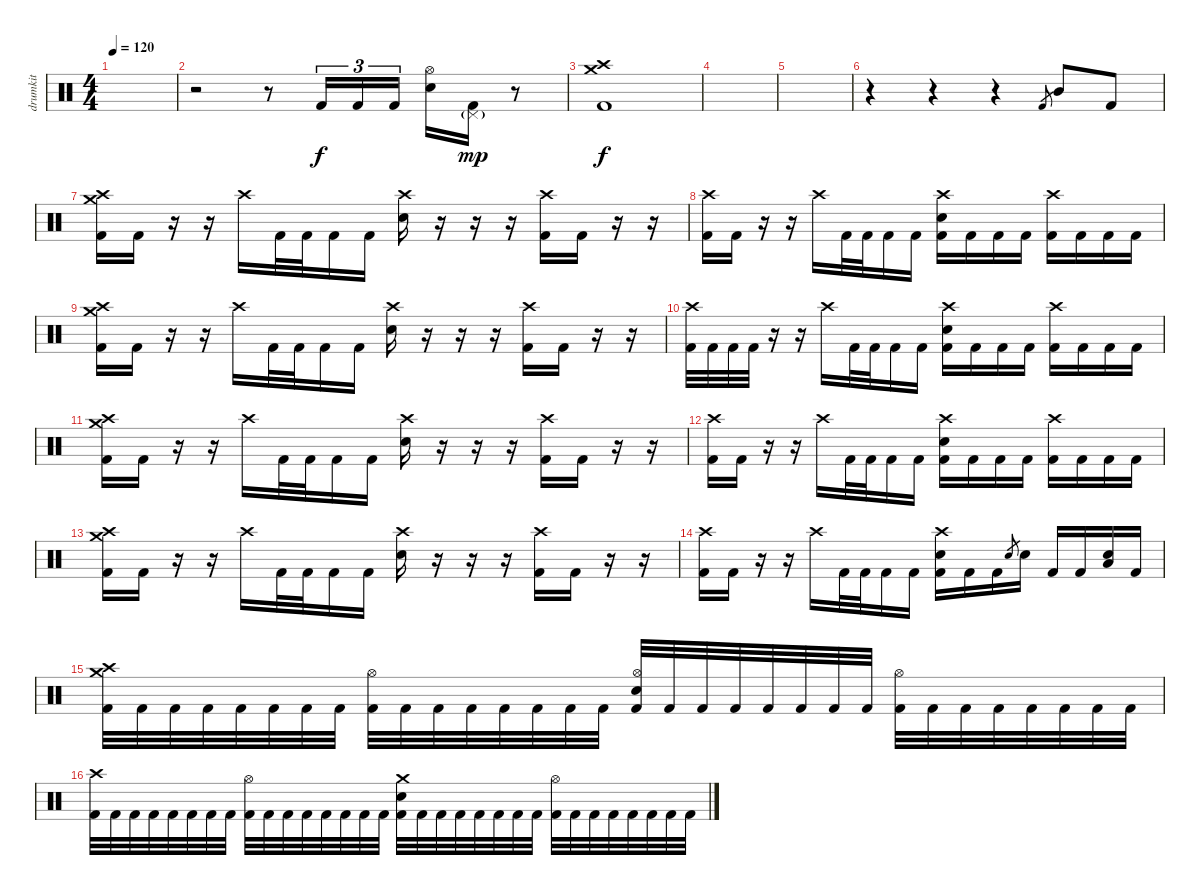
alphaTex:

\track ("drumkit" "drumkit") {instrument percussion}
\staff {score}
\articulation defaults
\ts (4 4)
\tempo 120
\clef neutral
\ks c
|
r.2 r.8 "Kick (hit) 2".16{tu (3 2)} "Kick (hit) 2".16{tu (3 2)} "Kick (hit) 2".16{tu (3 2)} ("Hi-Hat (open)" "Electric Snare (hit)").16 ("Pedal Hi-Hat (hit)"{g} "Kick (hit) 2").16{dy mp} r.8 |
("Crash high (hit)" "Crash medium (hit)" "Kick (hit) 2").1{dy f} |
|
|
r.4 r.4 r.4 "Kick (hit) 2".8{gr} "Mid Tom (hit)".8 "Kick (hit) 2".8 |
("Crash high (hit)" "Crash medium (hit)" "Kick (hit) 2").16 "Kick (hit) 2".16 r.16 r.16 "Crash high (hit)".16 "Kick (hit) 2".32 "Kick (hit) 2".32 "Kick (hit) 2".16 "Kick (hit) 2".16 ("Crash high (hit)" "Electric Snare (hit)").16 r.16 r.16 r.16 ("Crash high (hit)" "Kick (hit) 2").16 "Kick (hit) 2".16 r.16 r.16 |
("Crash high (hit)" "Kick (hit) 2").16 "Kick (hit) 2".16 r.16 r.16 "Crash high (hit)".16 "Kick (hit) 2".32 "Kick (hit) 2".32 "Kick (hit) 2".16 "Kick (hit) 2".16 ("Crash high (hit)" "Electric Snare (hit)" "Kick (hit) 2").16 "Kick (hit) 2".16 "Kick (hit) 2".16 "Kick (hit) 2".16 ("Crash high (hit)" "Kick (hit) 2").16 "Kick (hit) 2".16 "Kick (hit) 2".16 "Kick (hit) 2".16 |
("Crash high (hit)" "Crash medium (hit)" "Kick (hit) 2").16 "Kick (hit) 2".16 r.16 r.16 "Crash high (hit)".16 "Kick (hit) 2".32 "Kick (hit) 2".32 "Kick (hit) 2".16 "Kick (hit) 2".16 ("Crash high (hit)" "Electric Snare (hit)").16 r.16 r.16 r.16 ("Crash high (hit)" "Kick (hit) 2").16 "Kick (hit) 2".16 r.16 r.16 |
("Crash high (hit)" "Kick (hit) 2").32 "Kick (hit) 2".32 "Kick (hit) 2".32 "Kick (hit) 2".32 r.16 r.16 "Crash high (hit)".16 "Kick (hit) 2".32 "Kick (hit) 2".32 "Kick (hit) 2".16 "Kick (hit) 2".16 ("Crash high (hit)" "Electric Snare (hit)" "Kick (hit) 2").16 "Kick (hit) 2".16 "Kick (hit) 2".16 "Kick (hit) 2".16 ("Crash high (hit)" "Kick (hit) 2").16 "Kick (hit) 2".16 "Kick (hit) 2".16 "Kick (hit) 2".16 |
("Crash high (hit)" "Crash medium (hit)" "Kick (hit) 2").16 "Kick (hit) 2".16 r.16 r.16 "Crash high (hit)".16 "Kick (hit) 2".32 "Kick (hit) 2".32 "Kick (hit) 2".16 "Kick (hit) 2".16 ("Crash high (hit)" "Electric Snare (hit)").16 r.16 r.16 r.16 ("Crash high (hit)" "Kick (hit) 2").16 "Kick (hit) 2".16 r.16 r.16 |
("Crash high (hit)" "Kick (hit) 2").16 "Kick (hit) 2".16 r.16 r.16 "Crash high (hit)".16 "Kick (hit) 2".32 "Kick (hit) 2".32 "Kick (hit) 2".16 "Kick (hit) 2".16 ("Crash high (hit)" "Electric Snare (hit)" "Kick (hit) 2").16 "Kick (hit) 2".16 "Kick (hit) 2".16 "Kick (hit) 2".16 ("Crash high (hit)" "Kick (hit) 2").16 "Kick (hit) 2".16 "Kick (hit) 2".16 "Kick (hit) 2".16 |
("Crash high (hit)" "Crash medium (hit)" "Kick (hit) 2").16 "Kick (hit) 2".16 r.16 r.16 "Crash high (hit)".16 "Kick (hit) 2".32 "Kick (hit) 2".32 "Kick (hit) 2".16 "Kick (hit) 2".16 ("Crash high (hit)" "Electric Snare (hit)").16 r.16 r.16 r.16 ("Crash high (hit)" "Kick (hit) 2").16 "Kick (hit) 2".16 r.16 r.16 |
("Crash high (hit)" "Kick (hit) 2").16 "Kick (hit) 2".16 r.16 r.16 "Crash high (hit)".16 "Kick (hit) 2".32 "Kick (hit) 2".32 "Kick (hit) 2".16 "Kick (hit) 2".16 ("Crash high (hit)" "Electric Snare (hit)" "Kick (hit) 2").16 "Kick (hit) 2".16 "Kick (hit) 2".16 "Electric Snare (hit)".8{gr} "Electric Snare (hit)".16 "Kick (hit) 2".16 "Kick (hit) 2".16 ("Low Floor Tom (hit)" "Electric Snare (hit)").16 "Kick (hit) 2".16 |
("Crash high (hit)" "Crash medium (hit)" "Kick (hit) 2").32 "Kick (hit) 2".32 "Kick (hit) 2".32 "Kick (hit) 2".32 "Kick (hit) 2".32 "Kick (hit) 2".32 "Kick (hit) 2".32 "Kick (hit) 2".32 ("Hi-Hat (open)" "Kick (hit) 2").32 "Kick (hit) 2".32 "Kick (hit) 2".32 "Kick (hit) 2".32 "Kick (hit) 2".32 "Kick (hit) 2".32 "Kick (hit) 2".32 "Kick (hit) 2".32 ("Hi-Hat (open)" "Electric Snare (hit)" "Kick (hit) 2").32 "Kick (hit) 2".32 "Kick (hit) 2".32 "Kick (hit) 2".32 "Kick (hit) 2".32 "Kick (hit) 2".32 "Kick (hit) 2".32 "Kick (hit) 2".32 ("Hi-Hat (open)" "Kick (hit) 2").32 "Kick (hit) 2".32 "Kick (hit) 2".32 "Kick (hit) 2".32 "Kick (hit) 2".32 "Kick (hit) 2".32 "Kick (hit) 2".32 "Kick (hit) 2".32 |
("Crash high (hit)" "Kick (hit) 2").32 "Kick (hit) 2".32 "Kick (hit) 2".32 "Kick (hit) 2".32 "Kick (hit) 2".32 "Kick (hit) 2".32 "Kick (hit) 2".32 "Kick (hit) 2".32 ("Hi-Hat (open)" "Kick (hit) 2").32 "Kick (hit) 2".32 "Kick (hit) 2".32 "Kick (hit) 2".32 "Kick (hit) 2".32 "Kick (hit) 2".32 "Kick (hit) 2".32 "Kick (hit) 2".32 ("Crash medium (hit)" "Electric Snare (hit)" "Kick (hit) 2").32 "Kick (hit) 2".32 "Kick (hit) 2".32 "Kick (hit) 2".32 "Kick (hit) 2".32 "Kick (hit) 2".32 "Kick (hit) 2".32 "Kick (hit) 2".32 ("Hi-Hat (open)" "Kick (hit) 2").32 "Kick (hit) 2".32 "Kick (hit) 2".32 "Kick (hit) 2".32 "Kick (hit) 2".32 "Kick (hit) 2".32 "Kick (hit) 2".32 "Kick (hit) 2".32
